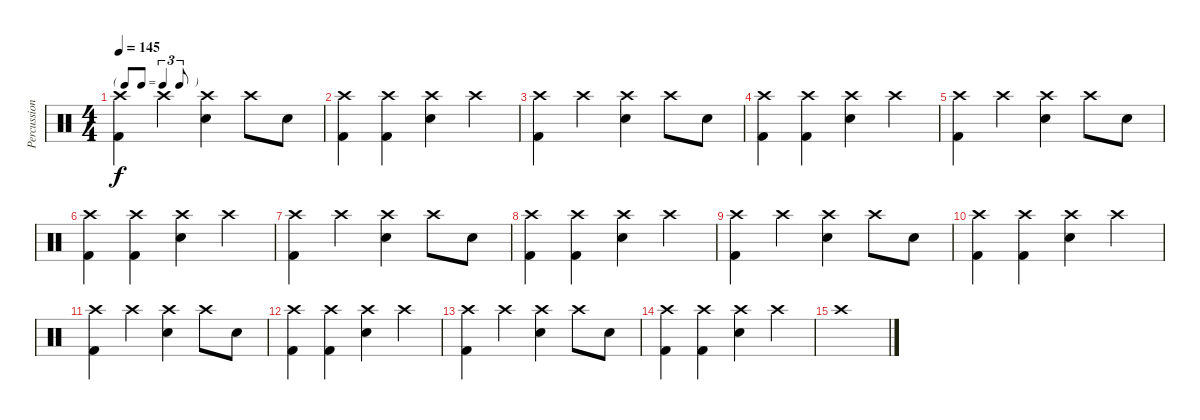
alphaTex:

\track ("Percussion" "Percussion") {instrument percussion}
\staff {score}
\articulation defaults
\ts (4 4)
\tf triplet8th
\tempo 145
\clef neutral
\ks c
("Crash high (hit)" "Kick (hit) 2").4{dy f} "Crash high (hit)".4 ("Crash high (hit)" "Electric Snare (hit)").4 "Crash high (hit)".8 "Electric Snare (hit)".8 |
("Crash high (hit)" "Kick (hit) 2").4 ("Crash high (hit)" "Kick (hit) 2").4 ("Crash high (hit)" "Electric Snare (hit)").4 "Crash high (hit)".4 |
("Crash high (hit)" "Kick (hit) 2").4 "Crash high (hit)".4 ("Crash high (hit)" "Electric Snare (hit)").4 "Crash high (hit)".8 "Electric Snare (hit)".8 |
("Crash high (hit)" "Kick (hit) 2").4 ("Crash high (hit)" "Kick (hit) 2").4 ("Crash high (hit)" "Electric Snare (hit)").4 "Crash high (hit)".4 |
("Crash high (hit)" "Kick (hit) 2").4 "Crash high (hit)".4 ("Crash high (hit)" "Electric Snare (hit)").4 "Crash high (hit)".8 "Electric Snare (hit)".8 |
("Crash high (hit)" "Kick (hit) 2").4 ("Crash high (hit)" "Kick (hit) 2").4 ("Crash high (hit)" "Electric Snare (hit)").4 "Crash high (hit)".4 |
("Crash high (hit)" "Kick (hit) 2").4 "Crash high (hit)".4 ("Crash high (hit)" "Electric Snare (hit)").4 "Crash high (hit)".8 "Electric Snare (hit)".8 |
("Crash high (hit)" "Kick (hit) 2").4 ("Crash high (hit)" "Kick (hit) 2").4 ("Crash high (hit)" "Electric Snare (hit)").4 "Crash high (hit)".4 |
("Crash high (hit)" "Kick (hit) 2").4 "Crash high (hit)".4 ("Crash high (hit)" "Electric Snare (hit)").4 "Crash high (hit)".8 "Electric Snare (hit)".8 |
("Crash high (hit)" "Kick (hit) 2").4 ("Crash high (hit)" "Kick (hit) 2").4 ("Crash high (hit)" "Electric Snare (hit)").4 "Crash high (hit)".4 |
("Crash high (hit)" "Kick (hit) 2").4 "Crash high (hit)".4 ("Crash high (hit)" "Electric Snare (hit)").4 "Crash high (hit)".8 "Electric Snare (hit)".8 |
("Crash high (hit)" "Kick (hit) 2").4 ("Crash high (hit)" "Kick (hit) 2").4 ("Crash high (hit)" "Electric Snare (hit)").4 "Crash high (hit)".4 |
("Crash high (hit)" "Kick (hit) 2").4 "Crash high (hit)".4 ("Crash high (hit)" "Electric Snare (hit)").4 "Crash high (hit)".8 "Electric Snare (hit)".8 |
("Crash high (hit)" "Kick (hit) 2").4 ("Crash high (hit)" "Kick (hit) 2").4 ("Crash high (hit)" "Electric Snare (hit)").4 "Crash high (hit)".4 |
"Crash high (hit)".1
